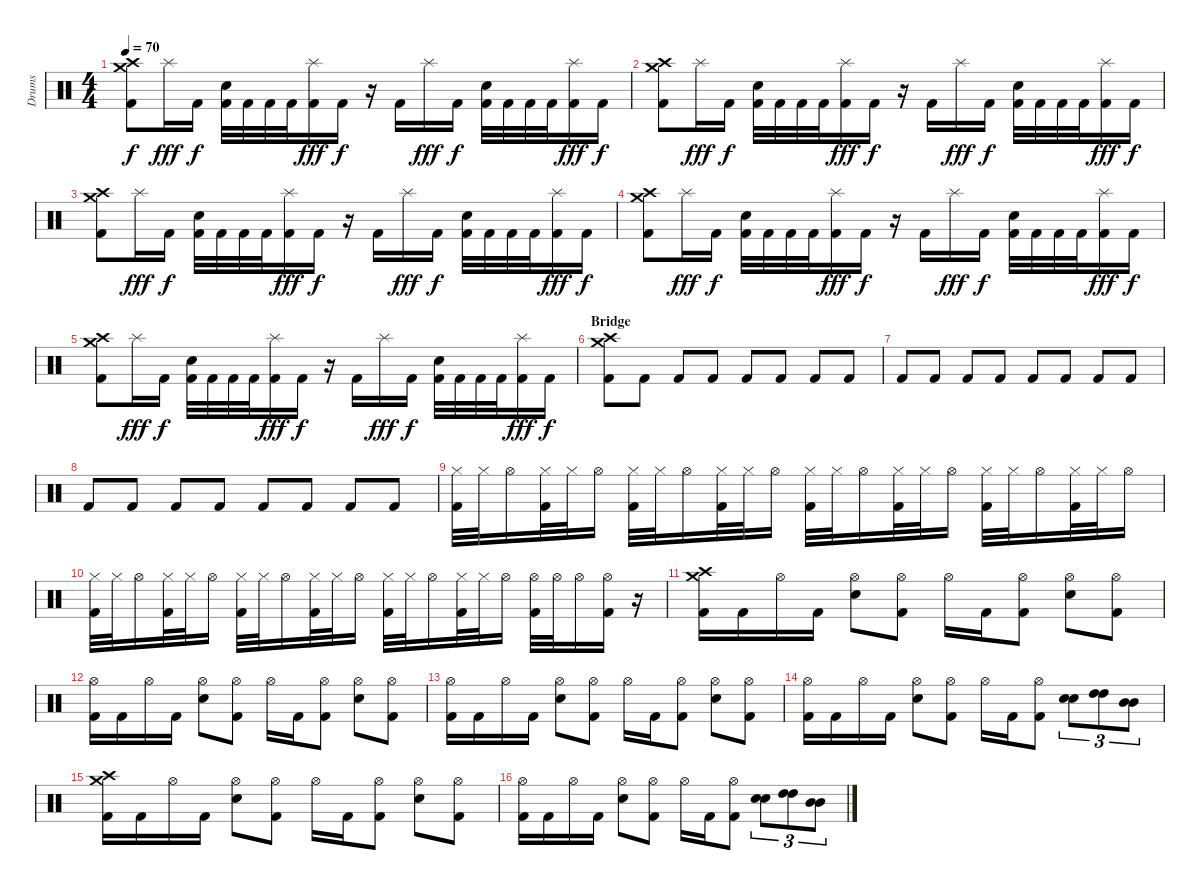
\track ("Drums" "Drums") {instrument percussion}
\staff {score}
\articulation defaults
\ts (4 4)
\tempo 70
\clef neutral
\ks c
("Crash high (hit)" "Crash medium (hit)" "Kick (hit) 2").8{dy f} "Splash (hit)".16{dy fff} "Kick (hit) 2".16{dy f} ("Electric Snare (hit)" "Kick (hit) 2").32 "Kick (hit) 2".32 "Kick (hit) 2".32 "Kick (hit) 2".32 ("Splash (hit)" "Kick (hit) 2").16{dy fff} "Kick (hit) 2".16{dy f} r.16 "Kick (hit) 2".16 "Splash (hit)".16{dy fff} "Kick (hit) 2".16{dy f} ("Electric Snare (hit)" "Kick (hit) 2").32 "Kick (hit) 2".32 "Kick (hit) 2".32 "Kick (hit) 2".32 ("Splash (hit)" "Kick (hit) 2").16{dy fff} "Kick (hit) 2".16{dy f} |
("Crash high (hit)" "Crash medium (hit)" "Kick (hit) 2").8 "Splash (hit)".16{dy fff} "Kick (hit) 2".16{dy f} ("Electric Snare (hit)" "Kick (hit) 2").32 "Kick (hit) 2".32 "Kick (hit) 2".32 "Kick (hit) 2".32 ("Splash (hit)" "Kick (hit) 2").16{dy fff} "Kick (hit) 2".16{dy f} r.16 "Kick (hit) 2".16 "Splash (hit)".16{dy fff} "Kick (hit) 2".16{dy f} ("Electric Snare (hit)" "Kick (hit) 2").32 "Kick (hit) 2".32 "Kick (hit) 2".32 "Kick (hit) 2".32 ("Splash (hit)" "Kick (hit) 2").16{dy fff} "Kick (hit) 2".16{dy f} |
("Crash high (hit)" "Crash medium (hit)" "Kick (hit) 2").8 "Splash (hit)".16{dy fff} "Kick (hit) 2".16{dy f} ("Electric Snare (hit)" "Kick (hit) 2").32 "Kick (hit) 2".32 "Kick (hit) 2".32 "Kick (hit) 2".32 ("Splash (hit)" "Kick (hit) 2").16{dy fff} "Kick (hit) 2".16{dy f} r.16 "Kick (hit) 2".16 "Splash (hit)".16{dy fff} "Kick (hit) 2".16{dy f} ("Electric Snare (hit)" "Kick (hit) 2").32 "Kick (hit) 2".32 "Kick (hit) 2".32 "Kick (hit) 2".32 ("Splash (hit)" "Kick (hit) 2").16{dy fff} "Kick (hit) 2".16{dy f} |
("Crash high (hit)" "Crash medium (hit)" "Kick (hit) 2").8 "Splash (hit)".16{dy fff} "Kick (hit) 2".16{dy f} ("Electric Snare (hit)" "Kick (hit) 2").32 "Kick (hit) 2".32 "Kick (hit) 2".32 "Kick (hit) 2".32 ("Splash (hit)" "Kick (hit) 2").16{dy fff} "Kick (hit) 2".16{dy f} r.16 "Kick (hit) 2".16 "Splash (hit)".16{dy fff} "Kick (hit) 2".16{dy f} ("Electric Snare (hit)" "Kick (hit) 2").32 "Kick (hit) 2".32 "Kick (hit) 2".32 "Kick (hit) 2".32 ("Splash (hit)" "Kick (hit) 2").16{dy fff} "Kick (hit) 2".16{dy f} |
("Crash high (hit)" "Crash medium (hit)" "Kick (hit) 2").8 "Splash (hit)".16{dy fff} "Kick (hit) 2".16{dy f} ("Electric Snare (hit)" "Kick (hit) 2").32 "Kick (hit) 2".32 "Kick (hit) 2".32 "Kick (hit) 2".32 ("Splash (hit)" "Kick (hit) 2").16{dy fff} "Kick (hit) 2".16{dy f} r.16 "Kick (hit) 2".16 "Splash (hit)".16{dy fff} "Kick (hit) 2".16{dy f} ("Electric Snare (hit)" "Kick (hit) 2").32 "Kick (hit) 2".32 "Kick (hit) 2".32 "Kick (hit) 2".32 ("Splash (hit)" "Kick (hit) 2").16{dy fff} "Kick (hit) 2".16{dy f} |
\section ("" "Bridge")
("Crash high (hit)" "Crash medium (hit)" "Kick (hit) 2").8 "Kick (hit) 2".8 "Kick (hit) 2".8 "Kick (hit) 2".8 "Kick (hit) 2".8 "Kick (hit) 2".8 "Kick (hit) 2".8 "Kick (hit) 2".8 |
"Kick (hit) 2".8 "Kick (hit) 2".8 "Kick (hit) 2".8 "Kick (hit) 2".8 "Kick (hit) 2".8 "Kick (hit) 2".8 "Kick (hit) 2".8 "Kick (hit) 2".8 |
"Kick (hit) 2".8 "Kick (hit) 2".8 "Kick (hit) 2".8 "Kick (hit) 2".8 "Kick (hit) 2".8 "Kick (hit) 2".8 "Kick (hit) 2".8 "Kick (hit) 2".8 |
("Hi-Hat (closed)" "Kick (hit) 2").32 "Hi-Hat (closed)".32 "Hi-Hat (open)".16 ("Hi-Hat (closed)" "Kick (hit) 2").32 "Hi-Hat (closed)".32 "Hi-Hat (open)".16 ("Hi-Hat (closed)" "Kick (hit) 2").32 "Hi-Hat (closed)".32 "Hi-Hat (open)".16 ("Hi-Hat (closed)" "Kick (hit) 2").32 "Hi-Hat (closed)".32 "Hi-Hat (open)".16 ("Hi-Hat (closed)" "Kick (hit) 2").32 "Hi-Hat (closed)".32 "Hi-Hat (open)".16 ("Hi-Hat (closed)" "Kick (hit) 2").32 "Hi-Hat (closed)".32 "Hi-Hat (open)".16 ("Hi-Hat (closed)" "Kick (hit) 2").32 "Hi-Hat (closed)".32 "Hi-Hat (open)".16 ("Hi-Hat (closed)" "Kick (hit) 2").32 "Hi-Hat (closed)".32 "Hi-Hat (open)".16 |
("Hi-Hat (closed)" "Kick (hit) 2").32 "Hi-Hat (closed)".32 "Hi-Hat (open)".16 ("Hi-Hat (closed)" "Kick (hit) 2").32 "Hi-Hat (closed)".32 "Hi-Hat (open)".16 ("Hi-Hat (closed)" "Kick (hit) 2").32 "Hi-Hat (closed)".32 "Hi-Hat (open)".16 ("Hi-Hat (closed)" "Kick (hit) 2").32 "Hi-Hat (closed)".32 "Hi-Hat (open)".16 ("Hi-Hat (closed)" "Kick (hit) 2").32 "Hi-Hat (closed)".32 "Hi-Hat (open)".16 ("Hi-Hat (closed)" "Kick (hit) 2").32 "Hi-Hat (closed)".32 "Hi-Hat (open)".16 ("Hi-Hat (open)" "Kick (hit) 2").32 "Hi-Hat (open)".32 "Hi-Hat (open)".16 ("Hi-Hat (open)" "Kick (hit) 2").16 r.16 |
("Crash high (hit)" "Crash medium (hit)" "Kick (hit) 2").16 "Kick (hit) 2".16 "Hi-Hat (open)".16 "Kick (hit) 2".16 ("Hi-Hat (open)" "Electric Snare (hit)").8 ("Hi-Hat (open)" "Kick (hit) 2").8 "Hi-Hat (open)".16 "Kick (hit) 2".16 ("Hi-Hat (open)" "Kick (hit) 2").8 ("Hi-Hat (open)" "Electric Snare (hit)").8 ("Hi-Hat (open)" "Kick (hit) 2").8 |
("Hi-Hat (open)" "Kick (hit) 2").16 "Kick (hit) 2".16 "Hi-Hat (open)".16 "Kick (hit) 2".16 ("Hi-Hat (open)" "Electric Snare (hit)").8 ("Hi-Hat (open)" "Kick (hit) 2").8 "Hi-Hat (open)".16 "Kick (hit) 2".16 ("Hi-Hat (open)" "Kick (hit) 2").8 ("Hi-Hat (open)" "Electric Snare (hit)").8 ("Hi-Hat (open)" "Kick (hit) 2").8 |
("Hi-Hat (open)" "Kick (hit) 2").16 "Kick (hit) 2".16 "Hi-Hat (open)".16 "Kick (hit) 2".16 ("Hi-Hat (open)" "Electric Snare (hit)").8 ("Hi-Hat (open)" "Kick (hit) 2").8 "Hi-Hat (open)".16 "Kick (hit) 2".16 ("Hi-Hat (open)" "Kick (hit) 2").8 ("Hi-Hat (open)" "Electric Snare (hit)").8 ("Hi-Hat (open)" "Kick (hit) 2").8 |
("Hi-Hat (open)" "Kick (hit) 2").16 "Kick (hit) 2".16 "Hi-Hat (open)".16 "Kick (hit) 2".16 ("Hi-Hat (open)" "Electric Snare (hit)").8 ("Hi-Hat (open)" "Kick (hit) 2").8 "Hi-Hat (open)".16 "Kick (hit) 2".16 ("Hi-Hat (open)" "Kick (hit) 2").8 ("Electric Snare (hit)" "Electric Snare (hit)").8{tu (3 2)} ("High Tom (hit)" "High Tom (hit)").8{tu (3 2)} ("Mid Tom (hit)" "Mid Tom (hit)").8{tu (3 2)} |
("Crash high (hit)" "Crash medium (hit)" "Kick (hit) 2").16 "Kick (hit) 2".16 "Hi-Hat (open)".16 "Kick (hit) 2".16 ("Hi-Hat (open)" "Electric Snare (hit)").8 ("Hi-Hat (open)" "Kick (hit) 2").8 "Hi-Hat (open)".16 "Kick (hit) 2".16 ("Hi-Hat (open)" "Kick (hit) 2").8 ("Hi-Hat (open)" "Electric Snare (hit)").8 ("Hi-Hat (open)" "Kick (hit) 2").8 |
("Hi-Hat (open)" "Kick (hit) 2").16 "Kick (hit) 2".16 "Hi-Hat (open)".16 "Kick (hit) 2".16 ("Hi-Hat (open)" "Electric Snare (hit)").8 ("Hi-Hat (open)" "Kick (hit) 2").8 "Hi-Hat (open)".16 "Kick (hit) 2".16 ("Hi-Hat (open)" "Kick (hit) 2").8 ("Electric Snare (hit)" "Electric Snare (hit)").8{tu (3 2)} ("High Tom (hit)" "High Tom (hit)").8{tu (3 2)} ("Mid Tom (hit)" "Mid Tom (hit)").8{tu (3 2)}
